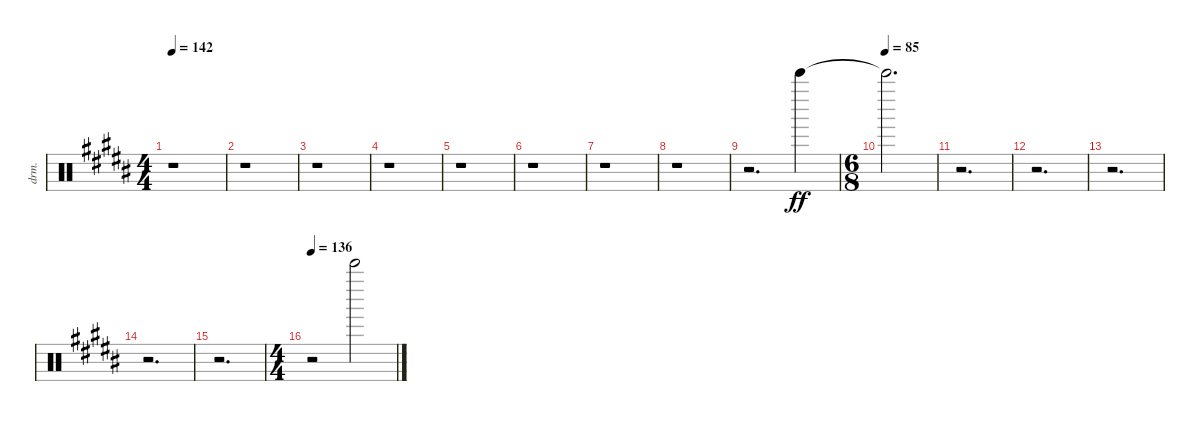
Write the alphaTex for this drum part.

\bracketExtendMode nobrackets
\track ("Wind Chimes" "drm.") {instrument percussion}
\staff {score}
\articulation defaults
\ts (4 4)
\tempo 142
\clef neutral
\ks b
r.1{dy ff beam Down} |
r.1{beam Down} |
r.1{beam Down} |
r.1{beam Down} |
r.1{beam Down} |
r.1{beam Down} |
r.1{beam Down} |
r.1{beam Down} |
r.2{d beam Down} "Bell Tree (hit)"{acc forcenatural}.4{beam Down} |
\ts (6 8)
\tempo (85)
"Bell Tree (hit)"{t acc forcenatural}.2{d beam Down} |
r.2{d beam Down} |
r.2{d beam Down} |
r.2{d beam Down} |
r.2{d beam Down} |
r.2{d beam Down} |
\ts (4 4)
\tempo 136
r.2{beam Down} "Bell Tree (hit)"{acc forcenatural}.2{beam Down}
